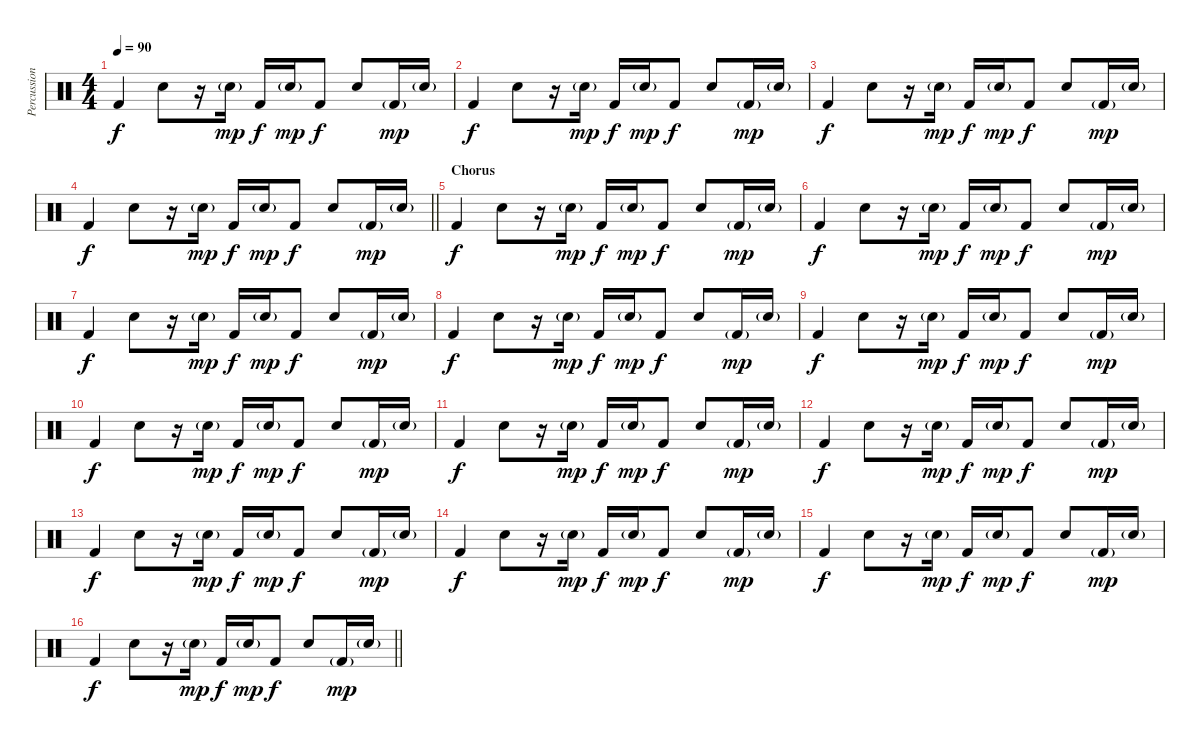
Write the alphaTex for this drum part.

\track ("Percussion" "Percussion") {instrument percussion}
\staff {score}
\articulation defaults
\ts (4 4)
\tempo 90
\clef neutral
\ks c "Kick (hit) 2".4{dy f} "Snare (hit) 2".8
r.16 "Snare (hit) 2"{g}.16{dy mp} "Kick (hit) 2".16{dy f} "Snare (hit) 2"{g}.16{dy mp} "Kick (hit) 2".8{dy f} "Snare (hit) 2".8 "Kick (hit) 2"{g}.16{dy mp} "Snare (hit) 2"{g}.16 |
"Kick (hit) 2".4{dy f} "Snare (hit) 2".8 r.16 "Snare (hit) 2"{g}.16{dy mp} "Kick (hit) 2".16{dy f} "Snare (hit) 2"{g}.16{dy mp} "Kick (hit) 2".8{dy f} "Snare (hit) 2".8 "Kick (hit) 2"{g}.16{dy mp} "Snare (hit) 2"{g}.16 |
"Kick (hit) 2".4{dy f} "Snare (hit) 2".8 r.16 "Snare (hit) 2"{g}.16{dy mp} "Kick (hit) 2".16{dy f} "Snare (hit) 2"{g}.16{dy mp} "Kick (hit) 2".8{dy f} "Snare (hit) 2".8 "Kick (hit) 2"{g}.16{dy mp} "Snare (hit) 2"{g}.16 |
\barLineRight lightlight "Kick (hit) 2".4{dy f} "Snare (hit) 2".8
r.16 "Snare (hit) 2"{g}.16{dy mp} "Kick (hit) 2".16{dy f} "Snare (hit) 2"{g}.16{dy mp} "Kick (hit) 2".8{dy f} "Snare (hit) 2".8 "Kick (hit) 2"{g}.16{dy mp} "Snare (hit) 2"{g}.16 |
\section ("" "Chorus")
"Kick (hit) 2".4{dy f} "Snare (hit) 2".8 r.16 "Snare (hit) 2"{g}.16{dy mp} "Kick (hit) 2".16{dy f} "Snare (hit) 2"{g}.16{dy mp} "Kick (hit) 2".8{dy f} "Snare (hit) 2".8 "Kick (hit) 2"{g}.16{dy mp} "Snare (hit) 2"{g}.16 |
"Kick (hit) 2".4{dy f} "Snare (hit) 2".8 r.16 "Snare (hit) 2"{g}.16{dy mp} "Kick (hit) 2".16{dy f} "Snare (hit) 2"{g}.16{dy mp} "Kick (hit) 2".8{dy f} "Snare (hit) 2".8 "Kick (hit) 2"{g}.16{dy mp} "Snare (hit) 2"{g}.16 |
"Kick (hit) 2".4{dy f} "Snare (hit) 2".8 r.16 "Snare (hit) 2"{g}.16{dy mp} "Kick (hit) 2".16{dy f} "Snare (hit) 2"{g}.16{dy mp} "Kick (hit) 2".8{dy f} "Snare (hit) 2".8 "Kick (hit) 2"{g}.16{dy mp} "Snare (hit) 2"{g}.16 |
"Kick (hit) 2".4{dy f} "Snare (hit) 2".8 r.16 "Snare (hit) 2"{g}.16{dy mp} "Kick (hit) 2".16{dy f} "Snare (hit) 2"{g}.16{dy mp} "Kick (hit) 2".8{dy f} "Snare (hit) 2".8 "Kick (hit) 2"{g}.16{dy mp} "Snare (hit) 2"{g}.16 |
"Kick (hit) 2".4{dy f} "Snare (hit) 2".8 r.16 "Snare (hit) 2"{g}.16{dy mp} "Kick (hit) 2".16{dy f} "Snare (hit) 2"{g}.16{dy mp} "Kick (hit) 2".8{dy f} "Snare (hit) 2".8 "Kick (hit) 2"{g}.16{dy mp} "Snare (hit) 2"{g}.16 |
"Kick (hit) 2".4{dy f} "Snare (hit) 2".8 r.16 "Snare (hit) 2"{g}.16{dy mp} "Kick (hit) 2".16{dy f} "Snare (hit) 2"{g}.16{dy mp} "Kick (hit) 2".8{dy f} "Snare (hit) 2".8 "Kick (hit) 2"{g}.16{dy mp} "Snare (hit) 2"{g}.16 |
"Kick (hit) 2".4{dy f} "Snare (hit) 2".8 r.16 "Snare (hit) 2"{g}.16{dy mp} "Kick (hit) 2".16{dy f} "Snare (hit) 2"{g}.16{dy mp} "Kick (hit) 2".8{dy f} "Snare (hit) 2".8 "Kick (hit) 2"{g}.16{dy mp} "Snare (hit) 2"{g}.16 |
"Kick (hit) 2".4{dy f} "Snare (hit) 2".8 r.16 "Snare (hit) 2"{g}.16{dy mp} "Kick (hit) 2".16{dy f} "Snare (hit) 2"{g}.16{dy mp} "Kick (hit) 2".8{dy f} "Snare (hit) 2".8 "Kick (hit) 2"{g}.16{dy mp} "Snare (hit) 2"{g}.16 |
"Kick (hit) 2".4{dy f} "Snare (hit) 2".8 r.16 "Snare (hit) 2"{g}.16{dy mp} "Kick (hit) 2".16{dy f} "Snare (hit) 2"{g}.16{dy mp} "Kick (hit) 2".8{dy f} "Snare (hit) 2".8 "Kick (hit) 2"{g}.16{dy mp} "Snare (hit) 2"{g}.16 |
"Kick (hit) 2".4{dy f} "Snare (hit) 2".8 r.16 "Snare (hit) 2"{g}.16{dy mp} "Kick (hit) 2".16{dy f} "Snare (hit) 2"{g}.16{dy mp} "Kick (hit) 2".8{dy f} "Snare (hit) 2".8 "Kick (hit) 2"{g}.16{dy mp} "Snare (hit) 2"{g}.16 |
"Kick (hit) 2".4{dy f} "Snare (hit) 2".8 r.16 "Snare (hit) 2"{g}.16{dy mp} "Kick (hit) 2".16{dy f} "Snare (hit) 2"{g}.16{dy mp} "Kick (hit) 2".8{dy f} "Snare (hit) 2".8 "Kick (hit) 2"{g}.16{dy mp} "Snare (hit) 2"{g}.16 |
\barLineRight lightlight "Kick (hit) 2".4{dy f} "Snare (hit) 2".8
r.16 "Snare (hit) 2"{g}.16{dy mp} "Kick (hit) 2".16{dy f} "Snare (hit) 2"{g}.16{dy mp} "Kick (hit) 2".8{dy f} "Snare (hit) 2".8 "Kick (hit) 2"{g}.16{dy mp} "Snare (hit) 2"{g}.16
